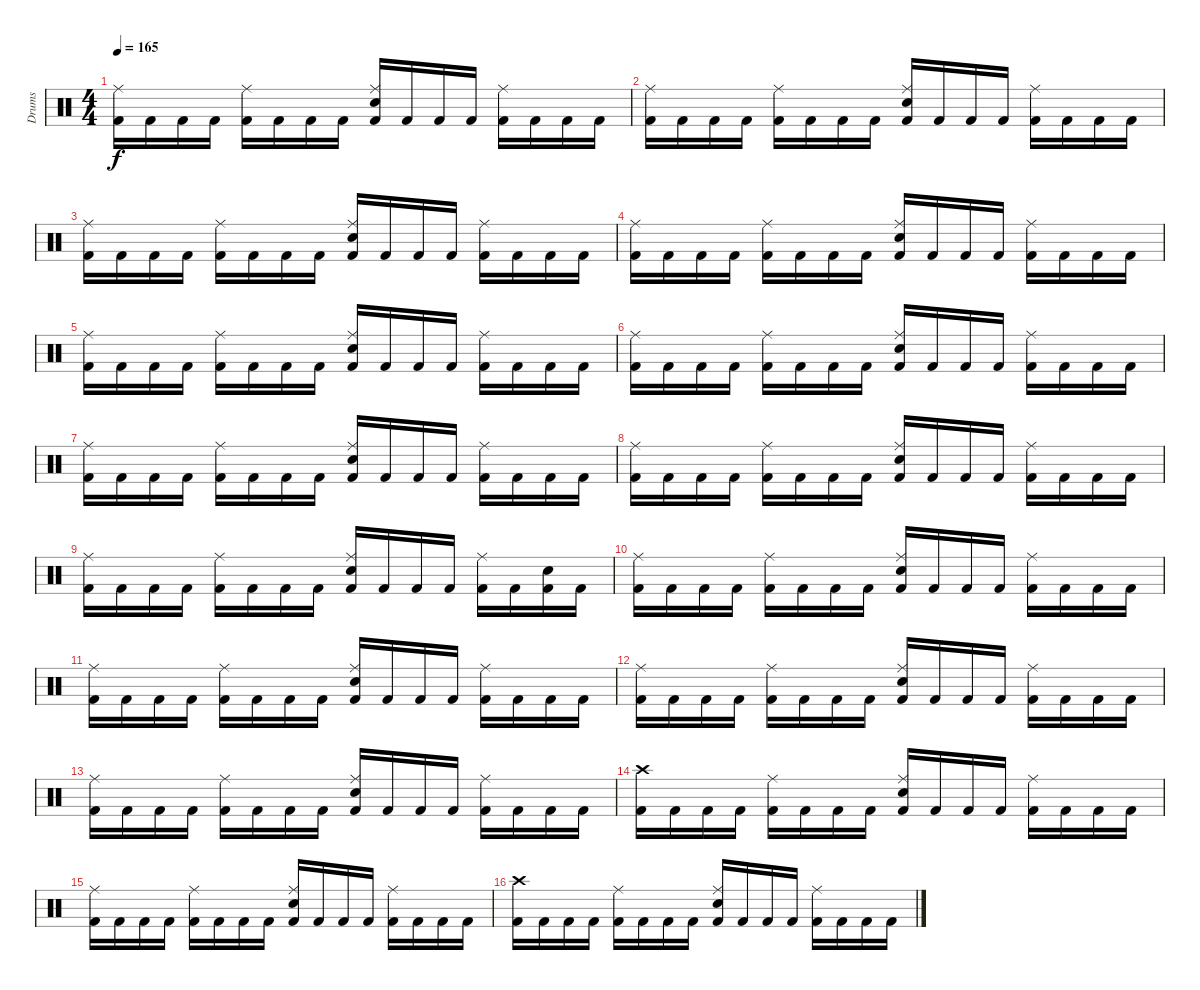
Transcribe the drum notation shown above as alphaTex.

\track ("Drums" "Drums") {instrument percussion}
\staff {score}
\articulation defaults
\ts (4 4)
\tempo 165
\clef neutral
\ks aminor
("Kick (hit) 2" "Ride (middle)").16{dy f} "Kick (hit) 2".16 "Kick (hit) 2".16 "Kick (hit) 2".16 ("Kick (hit) 2" "Ride (middle)").16 "Kick (hit) 2".16 "Kick (hit) 2".16 "Kick (hit) 2".16 ("Kick (hit) 2" "Electric Snare (hit)" "Ride (middle)").16 "Kick (hit) 2".16 "Kick (hit) 2".16 "Kick (hit) 2".16 ("Kick (hit) 2" "Ride (middle)").16 "Kick (hit) 2".16 "Kick (hit) 2".16 "Kick (hit) 2".16 |
("Kick (hit) 2" "Ride (middle)").16 "Kick (hit) 2".16 "Kick (hit) 2".16 "Kick (hit) 2".16 ("Kick (hit) 2" "Ride (middle)").16 "Kick (hit) 2".16 "Kick (hit) 2".16 "Kick (hit) 2".16 ("Kick (hit) 2" "Electric Snare (hit)" "Ride (middle)").16 "Kick (hit) 2".16 "Kick (hit) 2".16 "Kick (hit) 2".16 ("Kick (hit) 2" "Ride (middle)").16 "Kick (hit) 2".16 "Kick (hit) 2".16 "Kick (hit) 2".16 |
("Kick (hit) 2" "Ride (middle)").16 "Kick (hit) 2".16 "Kick (hit) 2".16 "Kick (hit) 2".16 ("Kick (hit) 2" "Ride (middle)").16 "Kick (hit) 2".16 "Kick (hit) 2".16 "Kick (hit) 2".16 ("Kick (hit) 2" "Electric Snare (hit)" "Ride (middle)").16 "Kick (hit) 2".16 "Kick (hit) 2".16 "Kick (hit) 2".16 ("Kick (hit) 2" "Ride (middle)").16 "Kick (hit) 2".16 "Kick (hit) 2".16 "Kick (hit) 2".16 |
("Kick (hit) 2" "Ride (middle)").16 "Kick (hit) 2".16 "Kick (hit) 2".16 "Kick (hit) 2".16 ("Kick (hit) 2" "Ride (middle)").16 "Kick (hit) 2".16 "Kick (hit) 2".16 "Kick (hit) 2".16 ("Kick (hit) 2" "Electric Snare (hit)" "Ride (middle)").16 "Kick (hit) 2".16 "Kick (hit) 2".16 "Kick (hit) 2".16 ("Kick (hit) 2" "Ride (middle)").16 "Kick (hit) 2".16 "Kick (hit) 2".16 "Kick (hit) 2".16 |
("Kick (hit) 2" "Ride (middle)").16 "Kick (hit) 2".16 "Kick (hit) 2".16 "Kick (hit) 2".16 ("Kick (hit) 2" "Ride (middle)").16 "Kick (hit) 2".16 "Kick (hit) 2".16 "Kick (hit) 2".16 ("Kick (hit) 2" "Electric Snare (hit)" "Ride (middle)").16 "Kick (hit) 2".16 "Kick (hit) 2".16 "Kick (hit) 2".16 ("Kick (hit) 2" "Ride (middle)").16 "Kick (hit) 2".16 "Kick (hit) 2".16 "Kick (hit) 2".16 |
("Kick (hit) 2" "Ride (middle)").16 "Kick (hit) 2".16 "Kick (hit) 2".16 "Kick (hit) 2".16 ("Kick (hit) 2" "Ride (middle)").16 "Kick (hit) 2".16 "Kick (hit) 2".16 "Kick (hit) 2".16 ("Kick (hit) 2" "Electric Snare (hit)" "Ride (middle)").16 "Kick (hit) 2".16 "Kick (hit) 2".16 "Kick (hit) 2".16 ("Kick (hit) 2" "Ride (middle)").16 "Kick (hit) 2".16 "Kick (hit) 2".16 "Kick (hit) 2".16 |
("Kick (hit) 2" "Ride (middle)").16 "Kick (hit) 2".16 "Kick (hit) 2".16 "Kick (hit) 2".16 ("Kick (hit) 2" "Ride (middle)").16 "Kick (hit) 2".16 "Kick (hit) 2".16 "Kick (hit) 2".16 ("Kick (hit) 2" "Electric Snare (hit)" "Ride (middle)").16 "Kick (hit) 2".16 "Kick (hit) 2".16 "Kick (hit) 2".16 ("Kick (hit) 2" "Ride (middle)").16 "Kick (hit) 2".16 "Kick (hit) 2".16 "Kick (hit) 2".16 |
("Kick (hit) 2" "Ride (middle)").16 "Kick (hit) 2".16 "Kick (hit) 2".16 "Kick (hit) 2".16 ("Kick (hit) 2" "Ride (middle)").16 "Kick (hit) 2".16 "Kick (hit) 2".16 "Kick (hit) 2".16 ("Kick (hit) 2" "Electric Snare (hit)" "Ride (middle)").16 "Kick (hit) 2".16 "Kick (hit) 2".16 "Kick (hit) 2".16 ("Kick (hit) 2" "Ride (middle)").16 "Kick (hit) 2".16 "Kick (hit) 2".16 "Kick (hit) 2".16 |
("Kick (hit) 2" "Ride (middle)").16 "Kick (hit) 2".16 "Kick (hit) 2".16 "Kick (hit) 2".16 ("Kick (hit) 2" "Ride (middle)").16 "Kick (hit) 2".16 "Kick (hit) 2".16 "Kick (hit) 2".16 ("Kick (hit) 2" "Electric Snare (hit)" "Ride (middle)").16 "Kick (hit) 2".16 "Kick (hit) 2".16 "Kick (hit) 2".16 ("Kick (hit) 2" "Ride (middle)").16 "Kick (hit) 2".16 ("Kick (hit) 2" "Electric Snare (hit)").16 "Kick (hit) 2".16 |
("Kick (hit) 2" "Ride (middle)").16 "Kick (hit) 2".16 "Kick (hit) 2".16 "Kick (hit) 2".16 ("Kick (hit) 2" "Ride (middle)").16 "Kick (hit) 2".16 "Kick (hit) 2".16 "Kick (hit) 2".16 ("Kick (hit) 2" "Electric Snare (hit)" "Ride (middle)").16 "Kick (hit) 2".16 "Kick (hit) 2".16 "Kick (hit) 2".16 ("Kick (hit) 2" "Ride (middle)").16 "Kick (hit) 2".16 "Kick (hit) 2".16 "Kick (hit) 2".16 |
("Kick (hit) 2" "Ride (middle)").16 "Kick (hit) 2".16 "Kick (hit) 2".16 "Kick (hit) 2".16 ("Kick (hit) 2" "Ride (middle)").16 "Kick (hit) 2".16 "Kick (hit) 2".16 "Kick (hit) 2".16 ("Kick (hit) 2" "Electric Snare (hit)" "Ride (middle)").16 "Kick (hit) 2".16 "Kick (hit) 2".16 "Kick (hit) 2".16 ("Kick (hit) 2" "Ride (middle)").16 "Kick (hit) 2".16 "Kick (hit) 2".16 "Kick (hit) 2".16 |
("Kick (hit) 2" "Ride (middle)").16 "Kick (hit) 2".16 "Kick (hit) 2".16 "Kick (hit) 2".16 ("Kick (hit) 2" "Ride (middle)").16 "Kick (hit) 2".16 "Kick (hit) 2".16 "Kick (hit) 2".16 ("Kick (hit) 2" "Electric Snare (hit)" "Ride (middle)").16 "Kick (hit) 2".16 "Kick (hit) 2".16 "Kick (hit) 2".16 ("Kick (hit) 2" "Ride (middle)").16 "Kick (hit) 2".16 "Kick (hit) 2".16 "Kick (hit) 2".16 |
("Kick (hit) 2" "Ride (middle)").16 "Kick (hit) 2".16 "Kick (hit) 2".16 "Kick (hit) 2".16 ("Kick (hit) 2" "Ride (middle)").16 "Kick (hit) 2".16 "Kick (hit) 2".16 "Kick (hit) 2".16 ("Kick (hit) 2" "Electric Snare (hit)" "Ride (middle)").16 "Kick (hit) 2".16 "Kick (hit) 2".16 "Kick (hit) 2".16 ("Kick (hit) 2" "Ride (middle)").16 "Kick (hit) 2".16 "Kick (hit) 2".16 "Kick (hit) 2".16 |
("Kick (hit) 2" "Crash high (hit)").16 "Kick (hit) 2".16 "Kick (hit) 2".16 "Kick (hit) 2".16 ("Kick (hit) 2" "Ride (middle)").16 "Kick (hit) 2".16 "Kick (hit) 2".16 "Kick (hit) 2".16 ("Kick (hit) 2" "Electric Snare (hit)" "Ride (middle)").16 "Kick (hit) 2".16 "Kick (hit) 2".16 "Kick (hit) 2".16 ("Kick (hit) 2" "Ride (middle)").16 "Kick (hit) 2".16 "Kick (hit) 2".16 "Kick (hit) 2".16 |
("Kick (hit) 2" "Ride (middle)").16 "Kick (hit) 2".16 "Kick (hit) 2".16 "Kick (hit) 2".16 ("Kick (hit) 2" "Ride (middle)").16 "Kick (hit) 2".16 "Kick (hit) 2".16 "Kick (hit) 2".16 ("Kick (hit) 2" "Electric Snare (hit)" "Ride (middle)").16 "Kick (hit) 2".16 "Kick (hit) 2".16 "Kick (hit) 2".16 ("Kick (hit) 2" "Ride (middle)").16 "Kick (hit) 2".16 "Kick (hit) 2".16 "Kick (hit) 2".16 |
("Kick (hit) 2" "Crash high (hit)").16 "Kick (hit) 2".16 "Kick (hit) 2".16 "Kick (hit) 2".16 ("Kick (hit) 2" "Ride (middle)").16 "Kick (hit) 2".16 "Kick (hit) 2".16 "Kick (hit) 2".16 ("Kick (hit) 2" "Electric Snare (hit)" "Ride (middle)").16 "Kick (hit) 2".16 "Kick (hit) 2".16 "Kick (hit) 2".16 ("Kick (hit) 2" "Ride (middle)").16 "Kick (hit) 2".16 "Kick (hit) 2".16 "Kick (hit) 2".16
